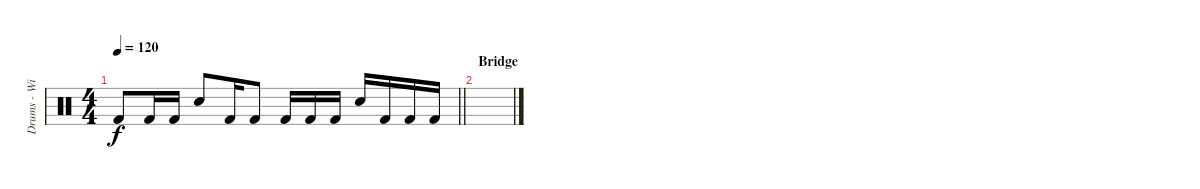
\track ("Drums - Willi Wurm" "Drums - Wi") {instrument percussion}
\staff {score}
\articulation defaults
\ts (4 4)
\tempo 120
\clef neutral
\barLineRight lightlight
\ks c "Kick (hit) 2".8{dy f} "Kick (hit) 2".16 "Kick (hit) 2".16 "Snare (hit) 2".8 "Kick (hit) 2".16 "Kick (hit) 2".8 "Kick (hit) 2".16 "Kick (hit) 2".16 "Kick (hit) 2".16 "Snare (hit) 2".16 "Kick (hit) 2".16 "Kick (hit) 2".16 "Kick (hit) 2".16
|
\section ("" "Bridge")
